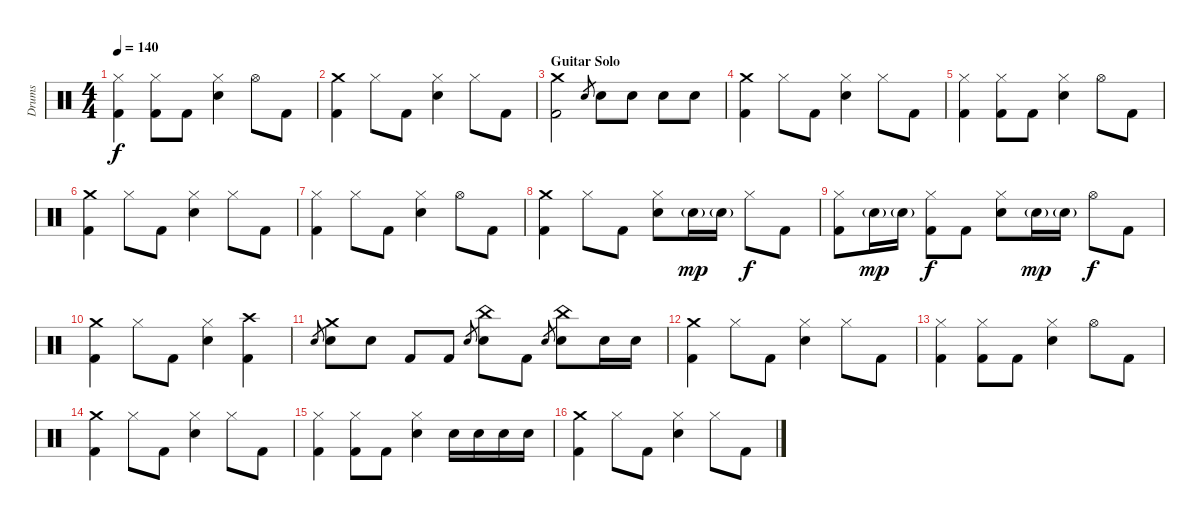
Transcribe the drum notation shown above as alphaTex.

\track ("Drums" "Drums") {instrument percussion}
\staff {score}
\articulation defaults
\ts (4 4)
\tempo 140
\clef neutral
\ks c
("Hi-Hat (closed)" "Kick (hit) 2").4{dy f} ("Hi-Hat (closed)" "Kick (hit) 2").8 "Kick (hit) 2".8 ("Hi-Hat (closed)" "Snare (hit) 2").4 "Hi-Hat (open)".8 "Kick (hit) 2".8 |
("Crash medium (hit)" "Kick (hit) 2").4 "Hi-Hat (closed)".8 "Kick (hit) 2".8 ("Hi-Hat (closed)" "Snare (hit) 2").4 "Hi-Hat (closed)".8 "Kick (hit) 2".8 |
\section ("" "Guitar Solo")
("Crash medium (hit)" "Kick (hit) 2").2 "Snare (hit) 2".8{gr} "Snare (hit) 2".8 "Snare (hit) 2".8 "Snare (hit) 2".8 "Snare (hit) 2".8 |
("Crash medium (hit)" "Kick (hit) 2").4 "Hi-Hat (closed)".8 "Kick (hit) 2".8 ("Hi-Hat (closed)" "Snare (hit) 2").4 "Hi-Hat (closed)".8 "Kick (hit) 2".8 |
("Hi-Hat (closed)" "Kick (hit) 2").4 ("Hi-Hat (closed)" "Kick (hit) 2").8 "Kick (hit) 2".8 ("Hi-Hat (closed)" "Snare (hit) 2").4 "Hi-Hat (open)".8 "Kick (hit) 2".8 |
("Crash medium (hit)" "Kick (hit) 2").4 "Hi-Hat (closed)".8 "Kick (hit) 2".8 ("Hi-Hat (closed)" "Snare (hit) 2").4 "Hi-Hat (closed)".8 "Kick (hit) 2".8 |
("Hi-Hat (closed)" "Kick (hit) 2").4 "Hi-Hat (closed)".8 "Kick (hit) 2".8 ("Hi-Hat (closed)" "Snare (hit) 2").4 "Hi-Hat (open)".8 "Kick (hit) 2".8 |
("Crash medium (hit)" "Kick (hit) 2").4 "Hi-Hat (closed)".8 "Kick (hit) 2".8 ("Hi-Hat (closed)" "Snare (hit) 2").8 "Snare (hit) 2"{g}.16{dy mp} "Snare (hit) 2"{g}.16 "Hi-Hat (closed)".8{dy f} "Kick (hit) 2".8 |
("Hi-Hat (closed)" "Kick (hit) 2").8 "Snare (hit) 2"{g}.16{dy mp} "Snare (hit) 2"{g}.16 ("Hi-Hat (closed)" "Kick (hit) 2").8{dy f} "Kick (hit) 2".8 ("Hi-Hat (closed)" "Snare (hit) 2").8 "Snare (hit) 2"{g}.16{dy mp} "Snare (hit) 2"{g}.16 "Hi-Hat (open)".8{dy f} "Kick (hit) 2".8 |
("Crash medium (hit)" "Kick (hit) 2").4 "Hi-Hat (closed)".8 "Kick (hit) 2".8 ("Hi-Hat (closed)" "Snare (hit) 2").4 ("Crash high (hit)" "Kick (hit) 2").4 |
"Snare (hit) 2".8{gr} ("Crash medium (hit)" "Snare (hit) 2").8 "Snare (hit) 2".8 "Kick (hit) 2".8 "Kick (hit) 2".8 "Snare (hit) 2".8{gr} ("China (hit)" "Snare (hit) 2").8 "Kick (hit) 2".8 "Snare (hit) 2".8{gr} ("China (hit)" "Snare (hit) 2").8 "Snare (hit) 2".16 "Snare (hit) 2".16 |
("Crash medium (hit)" "Kick (hit) 2").4 "Hi-Hat (closed)".8 "Kick (hit) 2".8 ("Hi-Hat (closed)" "Snare (hit) 2").4 "Hi-Hat (closed)".8 "Kick (hit) 2".8 |
("Hi-Hat (closed)" "Kick (hit) 2").4 ("Hi-Hat (closed)" "Kick (hit) 2").8 "Kick (hit) 2".8 ("Hi-Hat (closed)" "Snare (hit) 2").4 "Hi-Hat (open)".8 "Kick (hit) 2".8 |
("Crash medium (hit)" "Kick (hit) 2").4 "Hi-Hat (closed)".8 "Kick (hit) 2".8 ("Hi-Hat (closed)" "Snare (hit) 2").4 "Hi-Hat (closed)".8 "Kick (hit) 2".8 |
("Hi-Hat (closed)" "Kick (hit) 2").4 ("Hi-Hat (closed)" "Kick (hit) 2").8 "Kick (hit) 2".8 ("Hi-Hat (closed)" "Snare (hit) 2").4 "Snare (hit) 2".16 "Snare (hit) 2".16 "Snare (hit) 2".16 "Snare (hit) 2".16 |
("Crash medium (hit)" "Kick (hit) 2").4 "Hi-Hat (closed)".8 "Kick (hit) 2".8 ("Hi-Hat (closed)" "Snare (hit) 2").4 "Hi-Hat (closed)".8 "Kick (hit) 2".8
